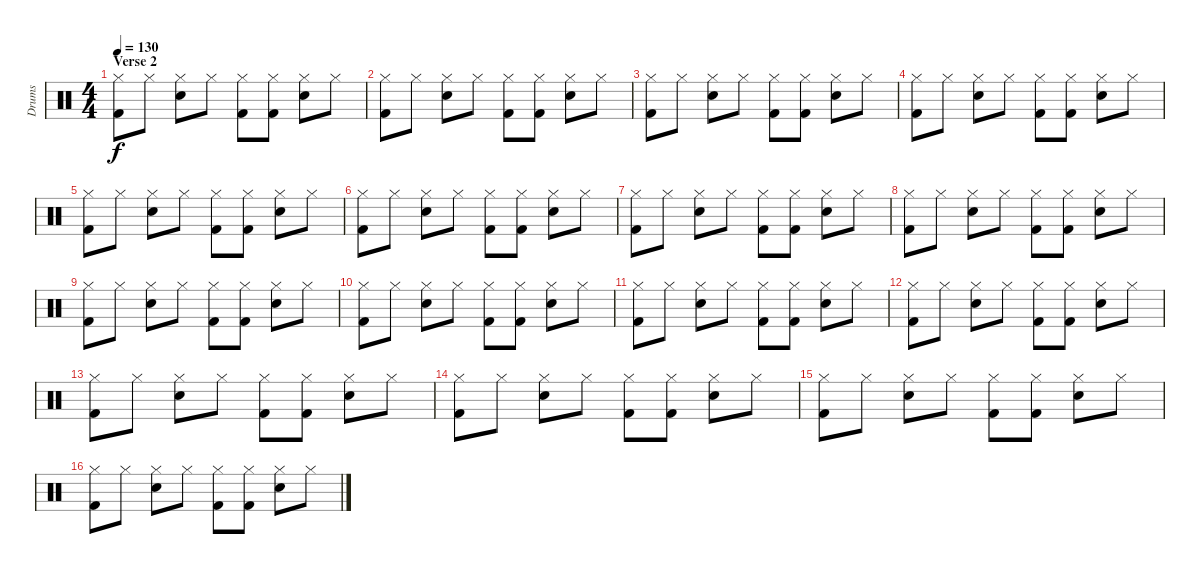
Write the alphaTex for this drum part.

\track ("Drums" "Drums") {instrument percussion}
\staff {score}
\articulation defaults
\ts (4 4)
\section ("" "Verse 2")
\tempo 130
\clef neutral
\ks c
("Kick (hit) 2" "Hi-Hat (closed)").8{dy f} "Hi-Hat (closed)".8 ("Electric Snare (hit)" "Hi-Hat (closed)").8 "Hi-Hat (closed)".8 ("Kick (hit) 2" "Hi-Hat (closed)").8 ("Kick (hit) 2" "Hi-Hat (closed)").8 ("Electric Snare (hit)" "Hi-Hat (closed)").8 "Hi-Hat (closed)".8 |
("Kick (hit) 2" "Hi-Hat (closed)").8 "Hi-Hat (closed)".8 ("Electric Snare (hit)" "Hi-Hat (closed)").8 "Hi-Hat (closed)".8 ("Kick (hit) 2" "Hi-Hat (closed)").8 ("Kick (hit) 2" "Hi-Hat (closed)").8 ("Electric Snare (hit)" "Hi-Hat (closed)").8 "Hi-Hat (closed)".8 |
("Kick (hit) 2" "Hi-Hat (closed)").8 "Hi-Hat (closed)".8 ("Electric Snare (hit)" "Hi-Hat (closed)").8 "Hi-Hat (closed)".8 ("Kick (hit) 2" "Hi-Hat (closed)").8 ("Kick (hit) 2" "Hi-Hat (closed)").8 ("Electric Snare (hit)" "Hi-Hat (closed)").8 "Hi-Hat (closed)".8 |
("Kick (hit) 2" "Hi-Hat (closed)").8 "Hi-Hat (closed)".8 ("Electric Snare (hit)" "Hi-Hat (closed)").8 "Hi-Hat (closed)".8 ("Kick (hit) 2" "Hi-Hat (closed)").8 ("Kick (hit) 2" "Hi-Hat (closed)").8 ("Electric Snare (hit)" "Hi-Hat (closed)").8 "Hi-Hat (closed)".8 |
("Kick (hit) 2" "Hi-Hat (closed)").8 "Hi-Hat (closed)".8 ("Electric Snare (hit)" "Hi-Hat (closed)").8 "Hi-Hat (closed)".8 ("Kick (hit) 2" "Hi-Hat (closed)").8 ("Kick (hit) 2" "Hi-Hat (closed)").8 ("Electric Snare (hit)" "Hi-Hat (closed)").8 "Hi-Hat (closed)".8 |
("Kick (hit) 2" "Hi-Hat (closed)").8 "Hi-Hat (closed)".8 ("Electric Snare (hit)" "Hi-Hat (closed)").8 "Hi-Hat (closed)".8 ("Kick (hit) 2" "Hi-Hat (closed)").8 ("Kick (hit) 2" "Hi-Hat (closed)").8 ("Electric Snare (hit)" "Hi-Hat (closed)").8 "Hi-Hat (closed)".8 |
("Kick (hit) 2" "Hi-Hat (closed)").8 "Hi-Hat (closed)".8 ("Electric Snare (hit)" "Hi-Hat (closed)").8 "Hi-Hat (closed)".8 ("Kick (hit) 2" "Hi-Hat (closed)").8 ("Kick (hit) 2" "Hi-Hat (closed)").8 ("Electric Snare (hit)" "Hi-Hat (closed)").8 "Hi-Hat (closed)".8 |
("Kick (hit) 2" "Hi-Hat (closed)").8 "Hi-Hat (closed)".8 ("Electric Snare (hit)" "Hi-Hat (closed)").8 "Hi-Hat (closed)".8 ("Kick (hit) 2" "Hi-Hat (closed)").8 ("Kick (hit) 2" "Hi-Hat (closed)").8 ("Electric Snare (hit)" "Hi-Hat (closed)").8 "Hi-Hat (closed)".8 |
("Kick (hit) 2" "Hi-Hat (closed)").8 "Hi-Hat (closed)".8 ("Electric Snare (hit)" "Hi-Hat (closed)").8 "Hi-Hat (closed)".8 ("Kick (hit) 2" "Hi-Hat (closed)").8 ("Kick (hit) 2" "Hi-Hat (closed)").8 ("Electric Snare (hit)" "Hi-Hat (closed)").8 "Hi-Hat (closed)".8 |
("Kick (hit) 2" "Hi-Hat (closed)").8 "Hi-Hat (closed)".8 ("Electric Snare (hit)" "Hi-Hat (closed)").8 "Hi-Hat (closed)".8 ("Kick (hit) 2" "Hi-Hat (closed)").8 ("Kick (hit) 2" "Hi-Hat (closed)").8 ("Electric Snare (hit)" "Hi-Hat (closed)").8 "Hi-Hat (closed)".8 |
("Kick (hit) 2" "Hi-Hat (closed)").8 "Hi-Hat (closed)".8 ("Electric Snare (hit)" "Hi-Hat (closed)").8 "Hi-Hat (closed)".8 ("Kick (hit) 2" "Hi-Hat (closed)").8 ("Kick (hit) 2" "Hi-Hat (closed)").8 ("Electric Snare (hit)" "Hi-Hat (closed)").8 "Hi-Hat (closed)".8 |
("Kick (hit) 2" "Hi-Hat (closed)").8 "Hi-Hat (closed)".8 ("Electric Snare (hit)" "Hi-Hat (closed)").8 "Hi-Hat (closed)".8 ("Kick (hit) 2" "Hi-Hat (closed)").8 ("Kick (hit) 2" "Hi-Hat (closed)").8 ("Electric Snare (hit)" "Hi-Hat (closed)").8 "Hi-Hat (closed)".8 |
("Kick (hit) 2" "Hi-Hat (closed)").8 "Hi-Hat (closed)".8 ("Electric Snare (hit)" "Hi-Hat (closed)").8 "Hi-Hat (closed)".8 ("Kick (hit) 2" "Hi-Hat (closed)").8 ("Kick (hit) 2" "Hi-Hat (closed)").8 ("Electric Snare (hit)" "Hi-Hat (closed)").8 "Hi-Hat (closed)".8 |
("Kick (hit) 2" "Hi-Hat (closed)").8 "Hi-Hat (closed)".8 ("Electric Snare (hit)" "Hi-Hat (closed)").8 "Hi-Hat (closed)".8 ("Kick (hit) 2" "Hi-Hat (closed)").8 ("Kick (hit) 2" "Hi-Hat (closed)").8 ("Electric Snare (hit)" "Hi-Hat (closed)").8 "Hi-Hat (closed)".8 |
("Kick (hit) 2" "Hi-Hat (closed)").8 "Hi-Hat (closed)".8 ("Electric Snare (hit)" "Hi-Hat (closed)").8 "Hi-Hat (closed)".8 ("Kick (hit) 2" "Hi-Hat (closed)").8 ("Kick (hit) 2" "Hi-Hat (closed)").8 ("Electric Snare (hit)" "Hi-Hat (closed)").8 "Hi-Hat (closed)".8 |
("Kick (hit) 2" "Hi-Hat (closed)").8 "Hi-Hat (closed)".8 ("Electric Snare (hit)" "Hi-Hat (closed)").8 "Hi-Hat (closed)".8 ("Kick (hit) 2" "Hi-Hat (closed)").8 ("Kick (hit) 2" "Hi-Hat (closed)").8 ("Electric Snare (hit)" "Hi-Hat (closed)").8 "Hi-Hat (closed)".8
